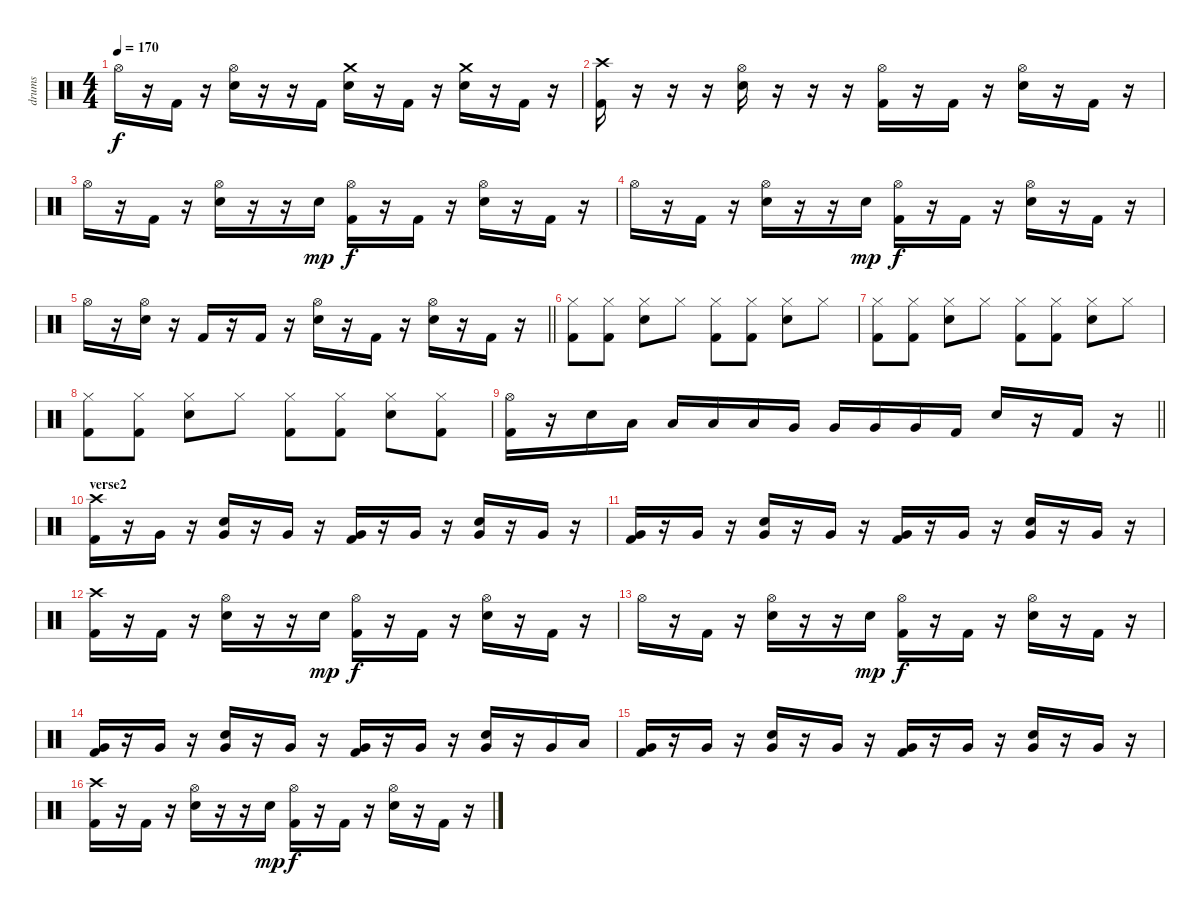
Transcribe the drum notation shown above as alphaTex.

\track ("drums" "drums") {instrument percussion}
\staff {score}
\articulation defaults
\ts (4 4)
\tempo 170
\clef neutral
\ks c "Hi-Hat (open)".16{dy f}
r.16 "Kick (hit) 2".16 r.16 ("Hi-Hat (open)" "Snare (hit) 2").16 r.16 r.16 "Kick (hit) 2".16 ("Crash medium (hit)" "Snare (hit) 2").16 r.16 "Kick (hit) 2".16 r.16 ("Crash medium (hit)" "Snare (hit) 2").16 r.16 "Kick (hit) 2".16 r.16 |
("Crash high (hit)" "Kick (hit) 2").16 r.16 r.16 r.16 ("Hi-Hat (open)" "Snare (hit) 2").16 r.16 r.16 r.16 ("Hi-Hat (open)" "Kick (hit) 2").16 r.16 "Kick (hit) 2".16 r.16 ("Hi-Hat (open)" "Snare (hit) 2").16 r.16 "Kick (hit) 2".16 r.16 |
"Hi-Hat (open)".16 r.16 "Kick (hit) 2".16 r.16 ("Hi-Hat (open)" "Snare (hit) 2").16 r.16 r.16 "Snare (hit) 2".16{dy mp} ("Hi-Hat (open)" "Kick (hit) 2").16{dy f} r.16 "Kick (hit) 2".16 r.16 ("Hi-Hat (open)" "Snare (hit) 2").16 r.16 "Kick (hit) 2".16 r.16 |
"Hi-Hat (open)".16 r.16 "Kick (hit) 2".16 r.16 ("Hi-Hat (open)" "Snare (hit) 2").16 r.16 r.16 "Snare (hit) 2".16{dy mp} ("Hi-Hat (open)" "Kick (hit) 2").16{dy f} r.16 "Kick (hit) 2".16 r.16 ("Hi-Hat (open)" "Snare (hit) 2").16 r.16 "Kick (hit) 2".16 r.16 |
\barLineRight lightlight "Hi-Hat (open)".16
r.16 ("Hi-Hat (open)" "Snare (hit) 2").16 r.16 "Kick (hit) 2".16 r.16 "Kick (hit) 2".16 r.16 ("Hi-Hat (open)" "Snare (hit) 2").16 r.16 "Kick (hit) 2".16 r.16 ("Hi-Hat (open)" "Snare (hit) 2").16 r.16 "Kick (hit) 2".16 r.16 |
\section ("" "")
("Hi-Hat (closed)" "Kick (hit) 2").8 ("Hi-Hat (closed)" "Kick (hit) 2").8 ("Hi-Hat (closed)" "Snare (hit) 2").8 "Hi-Hat (closed)".8 ("Hi-Hat (closed)" "Kick (hit) 2").8 ("Hi-Hat (closed)" "Kick (hit) 2").8 ("Hi-Hat (closed)" "Snare (hit) 2").8 "Hi-Hat (closed)".8 |
("Hi-Hat (closed)" "Kick (hit) 2").8 ("Hi-Hat (closed)" "Kick (hit) 2").8 ("Hi-Hat (closed)" "Snare (hit) 2").8 "Hi-Hat (closed)".8 ("Hi-Hat (closed)" "Kick (hit) 2").8 ("Hi-Hat (closed)" "Kick (hit) 2").8 ("Hi-Hat (closed)" "Snare (hit) 2").8 "Hi-Hat (closed)".8 |
("Hi-Hat (closed)" "Kick (hit) 2").8 ("Hi-Hat (closed)" "Kick (hit) 2").8 ("Hi-Hat (closed)" "Snare (hit) 2").8 "Hi-Hat (closed)".8 ("Hi-Hat (closed)" "Kick (hit) 2").8 ("Hi-Hat (closed)" "Kick (hit) 2").8 ("Hi-Hat (closed)" "Snare (hit) 2").8 ("Hi-Hat (closed)" "Kick (hit) 2").8 |
\barLineRight lightlight
("Hi-Hat (open)" "Kick (hit) 2").16 r.16 "Snare (hit) 2".16 "Low Tom (hit)".16 "Low Tom (hit)".16 "Low Tom (hit)".16 "Low Tom (hit)".16 "Very Low Tom (hit)".16 "Very Low Tom (hit)".16 "Very Low Tom (hit)".16 "Very Low Tom (hit)".16 "Kick (hit) 2".16 "Snare (hit) 2".16 r.16 "Kick (hit) 2".16 r.16 |
\section ("" "verse2")
("Crash high (hit)" "Kick (hit) 2").16 r.16 "Very Low Tom (hit)".16 r.16 ("Snare (hit) 2" "Very Low Tom (hit)").16 r.16 "Very Low Tom (hit)".16 r.16 ("Very Low Tom (hit)" "Kick (hit) 2").16 r.16 "Very Low Tom (hit)".16 r.16 ("Snare (hit) 2" "Very Low Tom (hit)").16 r.16 "Very Low Tom (hit)".16 r.16 |
("Very Low Tom (hit)" "Kick (hit) 2").16 r.16 "Very Low Tom (hit)".16 r.16 ("Snare (hit) 2" "Very Low Tom (hit)").16 r.16 "Very Low Tom (hit)".16 r.16 ("Very Low Tom (hit)" "Kick (hit) 2").16 r.16 "Very Low Tom (hit)".16 r.16 ("Snare (hit) 2" "Very Low Tom (hit)").16 r.16 "Very Low Tom (hit)".16 r.16 |
("Crash high (hit)" "Kick (hit) 2").16 r.16 "Kick (hit) 2".16 r.16 ("Hi-Hat (open)" "Snare (hit) 2").16 r.16 r.16 "Snare (hit) 2".16{dy mp} ("Hi-Hat (open)" "Kick (hit) 2").16{dy f} r.16 "Kick (hit) 2".16 r.16 ("Hi-Hat (open)" "Snare (hit) 2").16 r.16 "Kick (hit) 2".16 r.16 |
"Hi-Hat (open)".16 r.16 "Kick (hit) 2".16 r.16 ("Hi-Hat (open)" "Snare (hit) 2").16 r.16 r.16 "Snare (hit) 2".16{dy mp} ("Hi-Hat (open)" "Kick (hit) 2").16{dy f} r.16 "Kick (hit) 2".16 r.16 ("Hi-Hat (open)" "Snare (hit) 2").16 r.16 "Kick (hit) 2".16 r.16 |
("Very Low Tom (hit)" "Kick (hit) 2").16 r.16 "Very Low Tom (hit)".16 r.16 ("Snare (hit) 2" "Very Low Tom (hit)").16 r.16 "Very Low Tom (hit)".16 r.16 ("Very Low Tom (hit)" "Kick (hit) 2").16 r.16 "Very Low Tom (hit)".16 r.16 ("Snare (hit) 2" "Very Low Tom (hit)").16 r.16 "Very Low Tom (hit)".16 "Low Tom (hit)".16 |
("Very Low Tom (hit)" "Kick (hit) 2").16 r.16 "Very Low Tom (hit)".16 r.16 ("Snare (hit) 2" "Very Low Tom (hit)").16 r.16 "Very Low Tom (hit)".16 r.16 ("Very Low Tom (hit)" "Kick (hit) 2").16 r.16 "Very Low Tom (hit)".16 r.16 ("Snare (hit) 2" "Very Low Tom (hit)").16 r.16 "Very Low Tom (hit)".16 r.16 |
("Crash high (hit)" "Kick (hit) 2").16 r.16 "Kick (hit) 2".16 r.16 ("Hi-Hat (open)" "Snare (hit) 2").16 r.16 r.16 "Snare (hit) 2".16{dy mp} ("Hi-Hat (open)" "Kick (hit) 2").16{dy f} r.16 "Kick (hit) 2".16 r.16 ("Hi-Hat (open)" "Snare (hit) 2").16 r.16 "Kick (hit) 2".16 r.16
